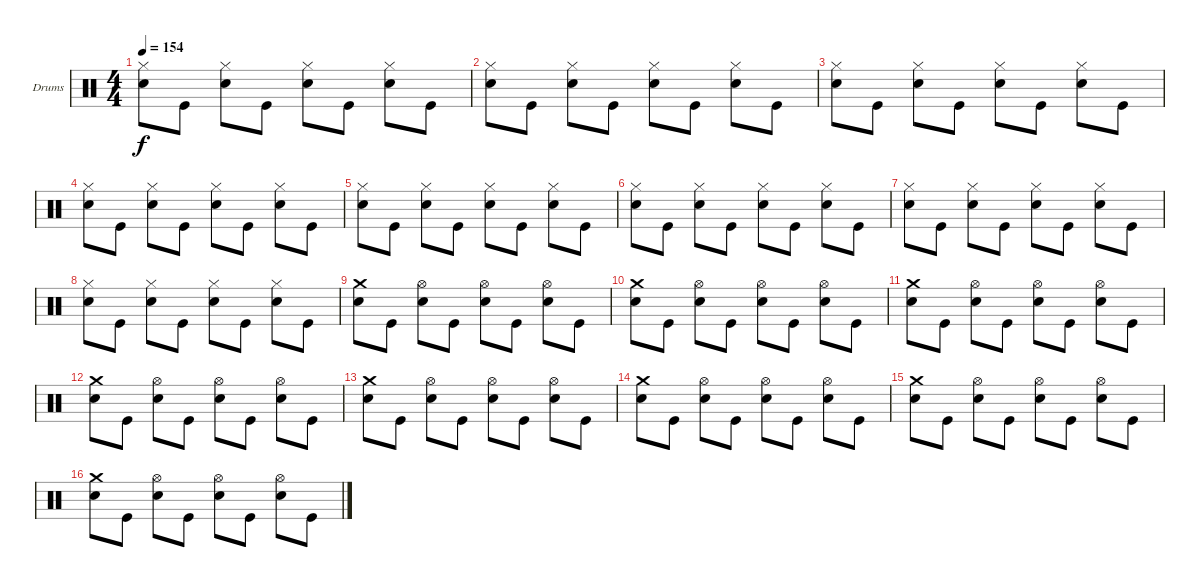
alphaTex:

\defaultSystemsLayout 4
\bracketExtendMode groupsimilarinstruments
\firstSystemTrackNameOrientation horizontal
\otherSystemsTrackNameOrientation horizontal
\track ("Drumkit" "Drums") {instrument percussion}
\staff {score}
\articulation defaults
\ts (4 4)
\tempo 154
\clef neutral
\ks c
("Hi-Hat (closed)" "Snare (hit) 2").8{dy f} "Kick (hit)".8 ("Hi-Hat (closed)" "Snare (hit) 2").8 "Kick (hit)".8 ("Hi-Hat (closed)" "Snare (hit) 2").8 "Kick (hit)".8 ("Hi-Hat (closed)" "Snare (hit) 2").8 "Kick (hit)".8 |
("Hi-Hat (closed)" "Snare (hit) 2").8 "Kick (hit)".8 ("Hi-Hat (closed)" "Snare (hit) 2").8 "Kick (hit)".8 ("Hi-Hat (closed)" "Snare (hit) 2").8 "Kick (hit)".8 ("Hi-Hat (closed)" "Snare (hit) 2").8 "Kick (hit)".8 |
("Hi-Hat (closed)" "Snare (hit) 2").8 "Kick (hit)".8 ("Hi-Hat (closed)" "Snare (hit) 2").8 "Kick (hit)".8 ("Hi-Hat (closed)" "Snare (hit) 2").8 "Kick (hit)".8 ("Hi-Hat (closed)" "Snare (hit) 2").8 "Kick (hit)".8 |
("Hi-Hat (closed)" "Snare (hit) 2").8 "Kick (hit)".8 ("Hi-Hat (closed)" "Snare (hit) 2").8 "Kick (hit)".8 ("Hi-Hat (closed)" "Snare (hit) 2").8 "Kick (hit)".8 ("Hi-Hat (closed)" "Snare (hit) 2").8 "Kick (hit)".8 |
("Hi-Hat (closed)" "Snare (hit) 2").8 "Kick (hit)".8 ("Hi-Hat (closed)" "Snare (hit) 2").8 "Kick (hit)".8 ("Hi-Hat (closed)" "Snare (hit) 2").8 "Kick (hit)".8 ("Hi-Hat (closed)" "Snare (hit) 2").8 "Kick (hit)".8 |
("Hi-Hat (closed)" "Snare (hit) 2").8 "Kick (hit)".8 ("Hi-Hat (closed)" "Snare (hit) 2").8 "Kick (hit)".8 ("Hi-Hat (closed)" "Snare (hit) 2").8 "Kick (hit)".8 ("Hi-Hat (closed)" "Snare (hit) 2").8 "Kick (hit)".8 |
("Hi-Hat (closed)" "Snare (hit) 2").8 "Kick (hit)".8 ("Hi-Hat (closed)" "Snare (hit) 2").8 "Kick (hit)".8 ("Hi-Hat (closed)" "Snare (hit) 2").8 "Kick (hit)".8 ("Hi-Hat (closed)" "Snare (hit) 2").8 "Kick (hit)".8 |
("Hi-Hat (closed)" "Snare (hit) 2").8 "Kick (hit)".8 ("Hi-Hat (closed)" "Snare (hit) 2").8 "Kick (hit)".8 ("Hi-Hat (closed)" "Snare (hit) 2").8 "Kick (hit)".8 ("Hi-Hat (closed)" "Snare (hit) 2").8 "Kick (hit)".8 |
("Crash medium (hit)" "Snare (hit) 2").8 "Kick (hit)".8 ("Hi-Hat (open)" "Snare (hit) 2").8 "Kick (hit)".8 ("Hi-Hat (open)" "Snare (hit) 2").8 "Kick (hit)".8 ("Hi-Hat (open)" "Snare (hit) 2").8 "Kick (hit)".8 |
("Crash medium (hit)" "Snare (hit) 2").8 "Kick (hit)".8 ("Hi-Hat (open)" "Snare (hit) 2").8 "Kick (hit)".8 ("Hi-Hat (open)" "Snare (hit) 2").8 "Kick (hit)".8 ("Hi-Hat (open)" "Snare (hit) 2").8 "Kick (hit)".8 |
("Crash medium (hit)" "Snare (hit) 2").8 "Kick (hit)".8 ("Hi-Hat (open)" "Snare (hit) 2").8 "Kick (hit)".8 ("Hi-Hat (open)" "Snare (hit) 2").8 "Kick (hit)".8 ("Hi-Hat (open)" "Snare (hit) 2").8 "Kick (hit)".8 |
("Crash medium (hit)" "Snare (hit) 2").8 "Kick (hit)".8 ("Hi-Hat (open)" "Snare (hit) 2").8 "Kick (hit)".8 ("Hi-Hat (open)" "Snare (hit) 2").8 "Kick (hit)".8 ("Hi-Hat (open)" "Snare (hit) 2").8 "Kick (hit)".8 |
("Crash medium (hit)" "Snare (hit) 2").8 "Kick (hit)".8 ("Hi-Hat (open)" "Snare (hit) 2").8 "Kick (hit)".8 ("Hi-Hat (open)" "Snare (hit) 2").8 "Kick (hit)".8 ("Hi-Hat (open)" "Snare (hit) 2").8 "Kick (hit)".8 |
("Crash medium (hit)" "Snare (hit) 2").8 "Kick (hit)".8 ("Hi-Hat (open)" "Snare (hit) 2").8 "Kick (hit)".8 ("Hi-Hat (open)" "Snare (hit) 2").8 "Kick (hit)".8 ("Hi-Hat (open)" "Snare (hit) 2").8 "Kick (hit)".8 |
("Crash medium (hit)" "Snare (hit) 2").8 "Kick (hit)".8 ("Hi-Hat (open)" "Snare (hit) 2").8 "Kick (hit)".8 ("Hi-Hat (open)" "Snare (hit) 2").8 "Kick (hit)".8 ("Hi-Hat (open)" "Snare (hit) 2").8 "Kick (hit)".8 |
("Crash medium (hit)" "Snare (hit) 2").8 "Kick (hit)".8 ("Hi-Hat (open)" "Snare (hit) 2").8 "Kick (hit)".8 ("Hi-Hat (open)" "Snare (hit) 2").8 "Kick (hit)".8 ("Hi-Hat (open)" "Snare (hit) 2").8 "Kick (hit)".8
